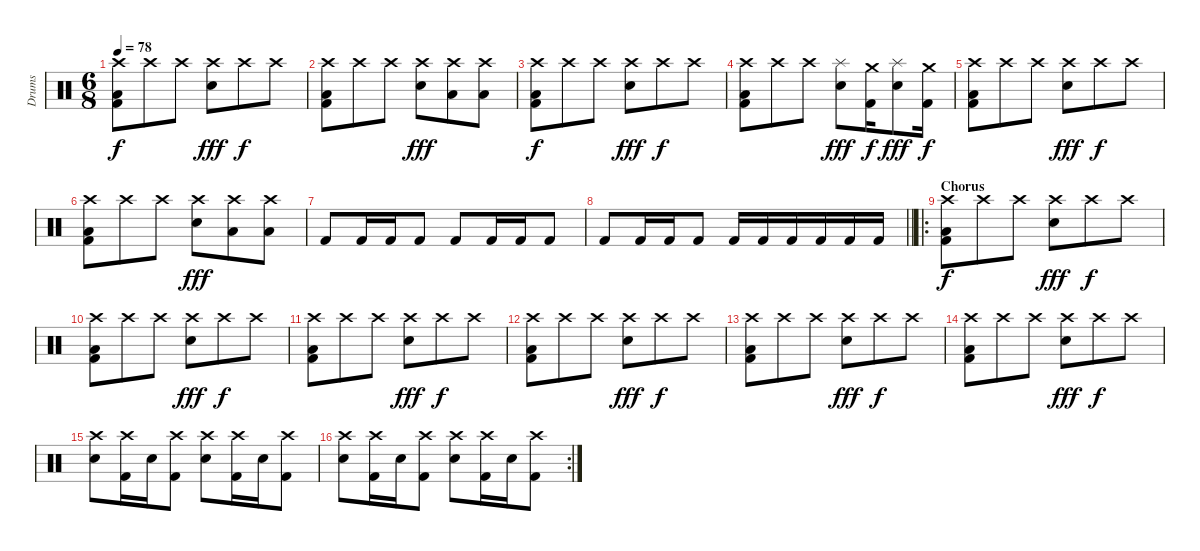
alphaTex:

\track ("Drums" "Drums") {instrument percussion}
\staff {score}
\articulation defaults
\ts (6 8)
\tempo 78
\clef neutral
\ks c
("Crash high (hit)" "Low Floor Tom (hit)" "Kick (hit) 2").8{dy f} "Crash high (hit)".8 "Crash high (hit)".8 ("Crash high (hit)" "Snare (hit) 2").8{dy fff} "Crash high (hit)".8{dy f} "Crash high (hit)".8 |
("Crash high (hit)" "Low Floor Tom (hit)" "Kick (hit) 2").8 "Crash high (hit)".8 "Crash high (hit)".8 ("Crash high (hit)" "Snare (hit) 2").8{dy fff} ("Crash high (hit)" "Low Tom (hit)").8 ("Crash high (hit)" "Low Tom (hit)").8 |
("Crash high (hit)" "Low Floor Tom (hit)" "Kick (hit) 2").8{dy f} "Crash high (hit)".8 "Crash high (hit)".8 ("Crash high (hit)" "Snare (hit) 2").8{dy fff} "Crash high (hit)".8{dy f} "Crash high (hit)".8 |
("Crash high (hit)" "Low Floor Tom (hit)" "Kick (hit) 2").8 "Crash high (hit)".8 "Crash high (hit)".8 ("Splash (hit)" "Snare (hit) 2").8{dy fff} ("Crash medium (hit)" "Kick (hit) 2").16{dy f} ("Splash (hit)" "Snare (hit) 2").8{dy fff} ("Crash medium (hit)" "Kick (hit) 2").16{dy f} |
("Crash high (hit)" "Low Floor Tom (hit)" "Kick (hit) 2").8 "Crash high (hit)".8 "Crash high (hit)".8 ("Crash high (hit)" "Snare (hit) 2").8{dy fff} "Crash high (hit)".8{dy f} "Crash high (hit)".8 |
("Crash high (hit)" "Low Floor Tom (hit)" "Kick (hit) 2").8 "Crash high (hit)".8 "Crash high (hit)".8 ("Crash high (hit)" "Snare (hit) 2").8{dy fff} ("Crash high (hit)" "Low Tom (hit)").8 ("Crash high (hit)" "Low Tom (hit)").8 |
"Kick (hit) 2".8 "Kick (hit) 2".16 "Kick (hit) 2".16 "Kick (hit) 2".8 "Kick (hit) 2".8 "Kick (hit) 2".16 "Kick (hit) 2".16 "Kick (hit) 2".8 |
\barLineRight lightlight "Kick (hit) 2".8 "Kick (hit) 2".16 "Kick (hit) 2".16 "Kick (hit) 2".8 "Kick (hit) 2".16 "Kick (hit) 2".16 "Kick (hit) 2".16 "Kick (hit) 2".16 "Kick (hit) 2".16 "Kick (hit) 2".16
|
\ro
\section ("" "Chorus")
("Crash high (hit)" "Low Floor Tom (hit)" "Kick (hit) 2").8{dy f} "Crash high (hit)".8 "Crash high (hit)".8 ("Crash high (hit)" "Snare (hit) 2").8{dy fff} "Crash high (hit)".8{dy f} "Crash high (hit)".8 |
("Crash high (hit)" "Low Floor Tom (hit)" "Kick (hit) 2").8 "Crash high (hit)".8 "Crash high (hit)".8 ("Crash high (hit)" "Snare (hit) 2").8{dy fff} "Crash high (hit)".8{dy f} "Crash high (hit)".8 |
("Crash high (hit)" "Low Floor Tom (hit)" "Kick (hit) 2").8 "Crash high (hit)".8 "Crash high (hit)".8 ("Crash high (hit)" "Snare (hit) 2").8{dy fff} "Crash high (hit)".8{dy f} "Crash high (hit)".8 |
("Crash high (hit)" "Low Floor Tom (hit)" "Kick (hit) 2").8 "Crash high (hit)".8 "Crash high (hit)".8 ("Crash high (hit)" "Snare (hit) 2").8{dy fff} "Crash high (hit)".8{dy f} "Crash high (hit)".8 |
("Crash high (hit)" "Low Floor Tom (hit)" "Kick (hit) 2").8 "Crash high (hit)".8 "Crash high (hit)".8 ("Crash high (hit)" "Snare (hit) 2").8{dy fff} "Crash high (hit)".8{dy f} "Crash high (hit)".8 |
("Crash high (hit)" "Low Floor Tom (hit)" "Kick (hit) 2").8 "Crash high (hit)".8 "Crash high (hit)".8 ("Crash high (hit)" "Snare (hit) 2").8{dy fff} "Crash high (hit)".8{dy f} "Crash high (hit)".8 |
("Crash high (hit)" "Snare (hit) 2").8 ("Crash high (hit)" "Kick (hit) 2").16 "Snare (hit) 2".16 ("Crash high (hit)" "Kick (hit) 2").8 ("Crash high (hit)" "Snare (hit) 2").8 ("Crash high (hit)" "Kick (hit) 2").16 "Snare (hit) 2".16 ("Crash high (hit)" "Kick (hit) 2").8 |
\rc 2
("Crash high (hit)" "Snare (hit) 2").8 ("Crash high (hit)" "Kick (hit) 2").16 "Snare (hit) 2".16 ("Crash high (hit)" "Kick (hit) 2").8 ("Crash high (hit)" "Snare (hit) 2").8 ("Crash high (hit)" "Kick (hit) 2").16 "Snare (hit) 2".16 ("Crash high (hit)" "Kick (hit) 2").8
